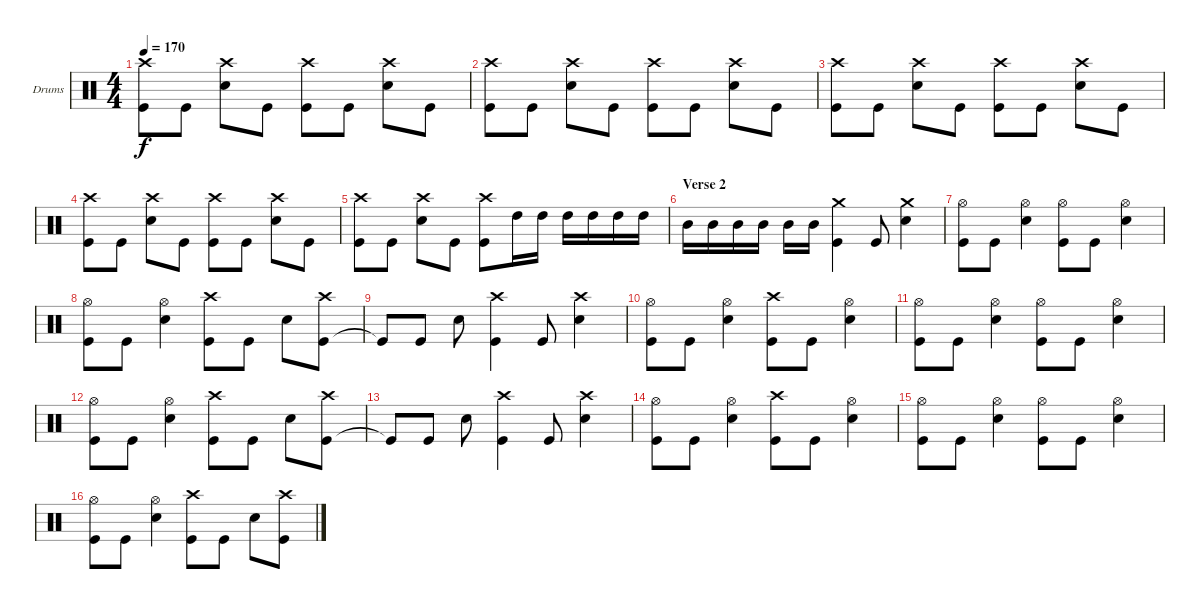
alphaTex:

\defaultSystemsLayout 4
\bracketExtendMode groupsimilarinstruments
\firstSystemTrackNameOrientation horizontal
\otherSystemsTrackNameOrientation horizontal
\track ("Jimmy \"The Hammer\" - Drums" "Drums") {instrument percussion}
\staff {score}
\articulation defaults
\ts (4 4)
\tempo 170
\clef neutral
\ks c
("Kick (hit)" "Crash high (hit)").8{dy f} "Kick (hit)".8 ("Snare (hit) 2" "Crash high (hit)").8 "Kick (hit)".8 ("Kick (hit)" "Crash high (hit)").8 "Kick (hit)".8 ("Snare (hit) 2" "Crash high (hit)").8 "Kick (hit)".8 |
("Kick (hit)" "Crash high (hit)").8 "Kick (hit)".8 ("Snare (hit) 2" "Crash high (hit)").8 "Kick (hit)".8 ("Kick (hit)" "Crash high (hit)").8 "Kick (hit)".8 ("Snare (hit) 2" "Crash high (hit)").8 "Kick (hit)".8 |
("Kick (hit)" "Crash high (hit)").8 "Kick (hit)".8 ("Snare (hit) 2" "Crash high (hit)").8 "Kick (hit)".8 ("Kick (hit)" "Crash high (hit)").8 "Kick (hit)".8 ("Snare (hit) 2" "Crash high (hit)").8 "Kick (hit)".8 |
("Kick (hit)" "Crash high (hit)").8 "Kick (hit)".8 ("Snare (hit) 2" "Crash high (hit)").8 "Kick (hit)".8 ("Kick (hit)" "Crash high (hit)").8 "Kick (hit)".8 ("Snare (hit) 2" "Crash high (hit)").8 "Kick (hit)".8 |
("Kick (hit)" "Crash high (hit)").8 "Kick (hit)".8 ("Snare (hit) 2" "Crash high (hit)").8 "Kick (hit)".8 ("Kick (hit)" "Crash high (hit)").8 "High Tom (hit)".16 "High Tom (hit)".16 "High Tom (hit)".16 "High Tom (hit)".16 "High Tom (hit)".16 "High Tom (hit)".16 |
\section ("" "Verse 2")
"Mid Tom (hit)".16 "Mid Tom (hit)".16 "Mid Tom (hit)".16 "Mid Tom (hit)".16 "Mid Tom (hit)".16 "Mid Tom (hit)".16 ("Kick (hit)" "Crash medium (hit)").4 "Kick (hit)".8 ("Snare (hit) 2" "Crash medium (hit)").4 |
("Hi-Hat (open)" "Kick (hit)").8 "Kick (hit)".8 ("Hi-Hat (open)" "Snare (hit) 2").4 ("Hi-Hat (open)" "Kick (hit)").8 "Kick (hit)".8 ("Hi-Hat (open)" "Snare (hit) 2").4 |
("Hi-Hat (open)" "Kick (hit)").8 "Kick (hit)".8 ("Hi-Hat (open)" "Snare (hit) 2").4 ("Kick (hit)" "Crash high (hit)").8 "Kick (hit)".8 "Snare (hit) 2".8 ("Kick (hit)" "Crash high (hit)").8 |
"Kick (hit)"{t}.8 "Kick (hit)".8 "Snare (hit) 2".8 ("Kick (hit)" "Crash high (hit)").4 "Kick (hit)".8 ("Snare (hit) 2" "Crash high (hit)").4 |
("Kick (hit)" "Hi-Hat (open)").8 "Kick (hit)".8 ("Snare (hit) 2" "Hi-Hat (open)").4 ("Kick (hit)" "Crash high (hit)").8 "Kick (hit)".8 ("Hi-Hat (open)" "Snare (hit) 2").4 |
("Kick (hit)" "Hi-Hat (open)").8 "Kick (hit)".8 ("Snare (hit) 2" "Hi-Hat (open)").4 ("Kick (hit)" "Hi-Hat (open)").8 "Kick (hit)".8 ("Snare (hit) 2" "Hi-Hat (open)").4 |
("Kick (hit)" "Hi-Hat (open)").8 "Kick (hit)".8 ("Snare (hit) 2" "Hi-Hat (open)").4 ("Kick (hit)" "Crash high (hit)").8 "Kick (hit)".8 "Snare (hit) 2".8 ("Kick (hit)" "Crash high (hit)").8 |
"Kick (hit)"{t}.8 "Kick (hit)".8 "Snare (hit) 2".8 ("Kick (hit)" "Crash high (hit)").4 "Kick (hit)".8 ("Snare (hit) 2" "Crash high (hit)").4 |
("Kick (hit)" "Hi-Hat (open)").8 "Kick (hit)".8 ("Snare (hit) 2" "Hi-Hat (open)").4 ("Kick (hit)" "Crash high (hit)").8 "Kick (hit)".8 ("Hi-Hat (open)" "Snare (hit) 2").4 |
("Kick (hit)" "Hi-Hat (open)").8 "Kick (hit)".8 ("Snare (hit) 2" "Hi-Hat (open)").4 ("Kick (hit)" "Hi-Hat (open)").8 "Kick (hit)".8 ("Snare (hit) 2" "Hi-Hat (open)").4 |
("Kick (hit)" "Hi-Hat (open)").8 "Kick (hit)".8 ("Snare (hit) 2" "Hi-Hat (open)").4 ("Kick (hit)" "Crash high (hit)").8 "Kick (hit)".8 "Snare (hit) 2".8 ("Kick (hit)" "Crash high (hit)").8
